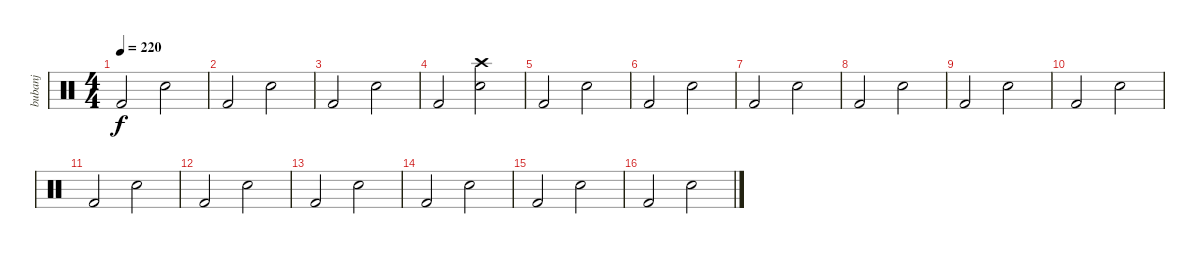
\track ("bubanj" "bubanj") {instrument percussion}
\staff {score}
\articulation defaults
\ts (4 4)
\tempo 220
\clef neutral
\ks c "Kick (hit) 2".2{dy f} "Snare (hit) 2".2
|
"Kick (hit) 2".2 "Snare (hit) 2".2 |
"Kick (hit) 2".2 "Snare (hit) 2".2 |
"Kick (hit) 2".2 ("Snare (hit) 2" "Crash high (hit)").2 |
"Kick (hit) 2".2 "Snare (hit) 2".2 |
"Kick (hit) 2".2 "Snare (hit) 2".2 |
"Kick (hit) 2".2 "Snare (hit) 2".2 |
"Kick (hit) 2".2 "Snare (hit) 2".2 |
"Kick (hit) 2".2 "Snare (hit) 2".2 |
"Kick (hit) 2".2 "Snare (hit) 2".2 |
"Kick (hit) 2".2 "Snare (hit) 2".2 |
"Kick (hit) 2".2 "Snare (hit) 2".2 |
"Kick (hit) 2".2 "Snare (hit) 2".2 |
"Kick (hit) 2".2 "Snare (hit) 2".2 |
"Kick (hit) 2".2 "Snare (hit) 2".2 |
"Kick (hit) 2".2 "Snare (hit) 2".2
